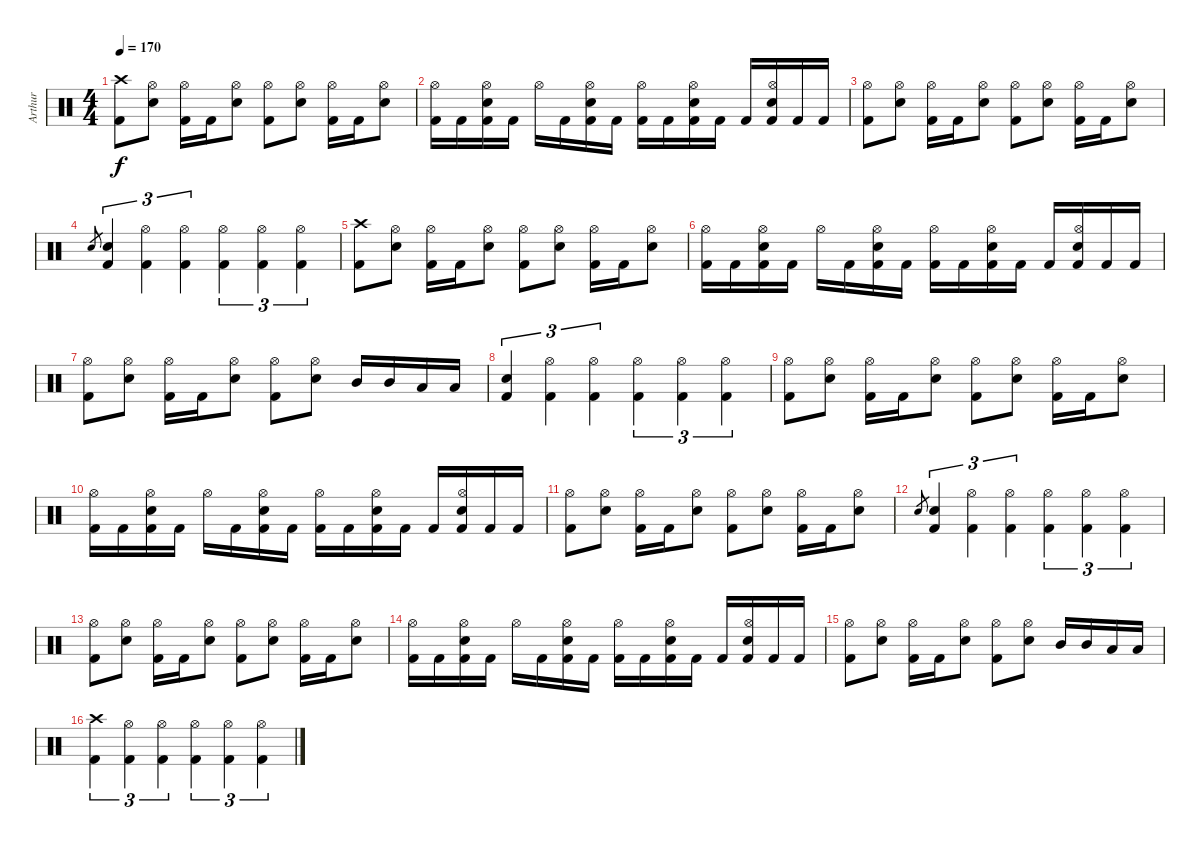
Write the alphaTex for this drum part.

\track ("Arthur" "Arthur") {instrument percussion}
\staff {score}
\articulation defaults
\ts (4 4)
\tempo 170
\clef neutral
\ks c
("Crash high (hit)" "Kick (hit) 2").8{dy f} ("Hi-Hat (open)" "Electric Snare (hit)").8 ("Hi-Hat (open)" "Kick (hit) 2").16 "Kick (hit) 2".16 ("Hi-Hat (open)" "Electric Snare (hit)").8 ("Hi-Hat (open)" "Kick (hit) 2").8 ("Hi-Hat (open)" "Electric Snare (hit)").8 ("Hi-Hat (open)" "Kick (hit) 2").16 "Kick (hit) 2".16 ("Hi-Hat (open)" "Electric Snare (hit)").8 |
("Hi-Hat (open)" "Kick (hit) 2").16 "Kick (hit) 2".16 ("Hi-Hat (open)" "Electric Snare (hit)" "Kick (hit) 2").16 "Kick (hit) 2".16 "Hi-Hat (open)".16 "Kick (hit) 2".16 ("Hi-Hat (open)" "Electric Snare (hit)" "Kick (hit) 2").16 "Kick (hit) 2".16 ("Hi-Hat (open)" "Kick (hit) 2").16 "Kick (hit) 2".16 ("Hi-Hat (open)" "Electric Snare (hit)" "Kick (hit) 2").16 "Kick (hit) 2".16 "Kick (hit) 2".16 ("Hi-Hat (open)" "Electric Snare (hit)" "Kick (hit) 2").16 "Kick (hit) 2".16 "Kick (hit) 2".16 |
("Hi-Hat (open)" "Kick (hit) 2").8 ("Hi-Hat (open)" "Electric Snare (hit)").8 ("Hi-Hat (open)" "Kick (hit) 2").16 "Kick (hit) 2".16 ("Hi-Hat (open)" "Electric Snare (hit)").8 ("Hi-Hat (open)" "Kick (hit) 2").8 ("Hi-Hat (open)" "Electric Snare (hit)").8 ("Hi-Hat (open)" "Kick (hit) 2").16 "Kick (hit) 2".16 ("Hi-Hat (open)" "Electric Snare (hit)").8 |
"Electric Snare (hit)".8{gr} ("Electric Snare (hit)" "Kick (hit) 2").4{tu (3 2)} ("Hi-Hat (open)" "Kick (hit) 2").4{tu (3 2)} ("Hi-Hat (open)" "Kick (hit) 2").4{tu (3 2)} ("Hi-Hat (open)" "Kick (hit) 2").4{tu (3 2)} ("Hi-Hat (open)" "Kick (hit) 2").4{tu (3 2)} ("Hi-Hat (open)" "Kick (hit) 2").4{tu (3 2)} |
("Crash high (hit)" "Kick (hit) 2").8 ("Hi-Hat (open)" "Electric Snare (hit)").8 ("Hi-Hat (open)" "Kick (hit) 2").16 "Kick (hit) 2".16 ("Hi-Hat (open)" "Electric Snare (hit)").8 ("Hi-Hat (open)" "Kick (hit) 2").8 ("Hi-Hat (open)" "Electric Snare (hit)").8 ("Hi-Hat (open)" "Kick (hit) 2").16 "Kick (hit) 2".16 ("Hi-Hat (open)" "Electric Snare (hit)").8 |
("Hi-Hat (open)" "Kick (hit) 2").16 "Kick (hit) 2".16 ("Hi-Hat (open)" "Electric Snare (hit)" "Kick (hit) 2").16 "Kick (hit) 2".16 "Hi-Hat (open)".16 "Kick (hit) 2".16 ("Hi-Hat (open)" "Electric Snare (hit)" "Kick (hit) 2").16 "Kick (hit) 2".16 ("Hi-Hat (open)" "Kick (hit) 2").16 "Kick (hit) 2".16 ("Hi-Hat (open)" "Electric Snare (hit)" "Kick (hit) 2").16 "Kick (hit) 2".16 "Kick (hit) 2".16 ("Hi-Hat (open)" "Electric Snare (hit)" "Kick (hit) 2").16 "Kick (hit) 2".16 "Kick (hit) 2".16 |
("Hi-Hat (open)" "Kick (hit) 2").8 ("Hi-Hat (open)" "Electric Snare (hit)").8 ("Hi-Hat (open)" "Kick (hit) 2").16 "Kick (hit) 2".16 ("Hi-Hat (open)" "Electric Snare (hit)").8 ("Hi-Hat (open)" "Kick (hit) 2").8 ("Hi-Hat (open)" "Electric Snare (hit)").8 "Mid Tom (hit)".16 "Mid Tom (hit)".16 "Low Tom (hit)".16 "Low Tom (hit)".16 |
("Electric Snare (hit)" "Kick (hit) 2").4{tu (3 2)} ("Hi-Hat (open)" "Kick (hit) 2").4{tu (3 2)} ("Hi-Hat (open)" "Kick (hit) 2").4{tu (3 2)} ("Hi-Hat (open)" "Kick (hit) 2").4{tu (3 2)} ("Hi-Hat (open)" "Kick (hit) 2").4{tu (3 2)} ("Hi-Hat (open)" "Kick (hit) 2").4{tu (3 2)} |
("Hi-Hat (open)" "Kick (hit) 2").8 ("Hi-Hat (open)" "Electric Snare (hit)").8 ("Hi-Hat (open)" "Kick (hit) 2").16 "Kick (hit) 2".16 ("Hi-Hat (open)" "Electric Snare (hit)").8 ("Hi-Hat (open)" "Kick (hit) 2").8 ("Hi-Hat (open)" "Electric Snare (hit)").8 ("Hi-Hat (open)" "Kick (hit) 2").16 "Kick (hit) 2".16 ("Hi-Hat (open)" "Electric Snare (hit)").8 |
("Hi-Hat (open)" "Kick (hit) 2").16 "Kick (hit) 2".16 ("Hi-Hat (open)" "Electric Snare (hit)" "Kick (hit) 2").16 "Kick (hit) 2".16 "Hi-Hat (open)".16 "Kick (hit) 2".16 ("Hi-Hat (open)" "Electric Snare (hit)" "Kick (hit) 2").16 "Kick (hit) 2".16 ("Hi-Hat (open)" "Kick (hit) 2").16 "Kick (hit) 2".16 ("Hi-Hat (open)" "Electric Snare (hit)" "Kick (hit) 2").16 "Kick (hit) 2".16 "Kick (hit) 2".16 ("Hi-Hat (open)" "Electric Snare (hit)" "Kick (hit) 2").16 "Kick (hit) 2".16 "Kick (hit) 2".16 |
("Hi-Hat (open)" "Kick (hit) 2").8 ("Hi-Hat (open)" "Electric Snare (hit)").8 ("Hi-Hat (open)" "Kick (hit) 2").16 "Kick (hit) 2".16 ("Hi-Hat (open)" "Electric Snare (hit)").8 ("Hi-Hat (open)" "Kick (hit) 2").8 ("Hi-Hat (open)" "Electric Snare (hit)").8 ("Hi-Hat (open)" "Kick (hit) 2").16 "Kick (hit) 2".16 ("Hi-Hat (open)" "Electric Snare (hit)").8 |
"Electric Snare (hit)".8{gr} ("Electric Snare (hit)" "Kick (hit) 2").4{tu (3 2)} ("Hi-Hat (open)" "Kick (hit) 2").4{tu (3 2)} ("Hi-Hat (open)" "Kick (hit) 2").4{tu (3 2)} ("Hi-Hat (open)" "Kick (hit) 2").4{tu (3 2)} ("Hi-Hat (open)" "Kick (hit) 2").4{tu (3 2)} ("Hi-Hat (open)" "Kick (hit) 2").4{tu (3 2)} |
("Hi-Hat (open)" "Kick (hit) 2").8 ("Hi-Hat (open)" "Electric Snare (hit)").8 ("Hi-Hat (open)" "Kick (hit) 2").16 "Kick (hit) 2".16 ("Hi-Hat (open)" "Electric Snare (hit)").8 ("Hi-Hat (open)" "Kick (hit) 2").8 ("Hi-Hat (open)" "Electric Snare (hit)").8 ("Hi-Hat (open)" "Kick (hit) 2").16 "Kick (hit) 2".16 ("Hi-Hat (open)" "Electric Snare (hit)").8 |
("Hi-Hat (open)" "Kick (hit) 2").16 "Kick (hit) 2".16 ("Hi-Hat (open)" "Electric Snare (hit)" "Kick (hit) 2").16 "Kick (hit) 2".16 "Hi-Hat (open)".16 "Kick (hit) 2".16 ("Hi-Hat (open)" "Electric Snare (hit)" "Kick (hit) 2").16 "Kick (hit) 2".16 ("Hi-Hat (open)" "Kick (hit) 2").16 "Kick (hit) 2".16 ("Hi-Hat (open)" "Electric Snare (hit)" "Kick (hit) 2").16 "Kick (hit) 2".16 "Kick (hit) 2".16 ("Hi-Hat (open)" "Electric Snare (hit)" "Kick (hit) 2").16 "Kick (hit) 2".16 "Kick (hit) 2".16 |
("Hi-Hat (open)" "Kick (hit) 2").8 ("Hi-Hat (open)" "Electric Snare (hit)").8 ("Hi-Hat (open)" "Kick (hit) 2").16 "Kick (hit) 2".16 ("Hi-Hat (open)" "Electric Snare (hit)").8 ("Hi-Hat (open)" "Kick (hit) 2").8 ("Hi-Hat (open)" "Electric Snare (hit)").8 "Mid Tom (hit)".16 "Mid Tom (hit)".16 "Low Tom (hit)".16 "Low Tom (hit)".16 |
("Crash high (hit)" "Kick (hit) 2").4{tu (3 2)} ("Hi-Hat (open)" "Kick (hit) 2").4{tu (3 2)} ("Hi-Hat (open)" "Kick (hit) 2").4{tu (3 2)} ("Hi-Hat (open)" "Kick (hit) 2").4{tu (3 2)} ("Hi-Hat (open)" "Kick (hit) 2").4{tu (3 2)} ("Hi-Hat (open)" "Kick (hit) 2").4{tu (3 2)}
